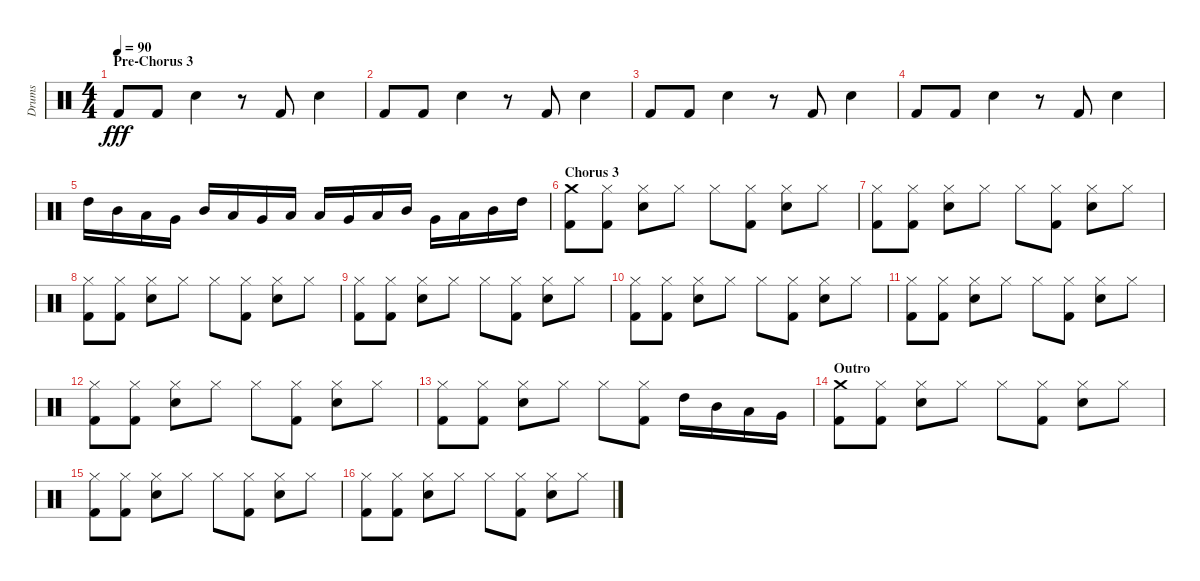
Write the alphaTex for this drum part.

\track ("Drums" "Drums") {instrument percussion}
\staff {score}
\articulation defaults
\ts (4 4)
\section ("" "Pre-Chorus 3")
\tempo 90
\clef neutral
\ks c "Kick (hit) 2".8{dy fff} "Kick (hit) 2".8 "Electric Snare (hit)".4
r.8 "Kick (hit) 2".8 "Electric Snare (hit)".4 |
"Kick (hit) 2".8 "Kick (hit) 2".8 "Electric Snare (hit)".4 r.8 "Kick (hit) 2".8 "Electric Snare (hit)".4 |
"Kick (hit) 2".8 "Kick (hit) 2".8 "Electric Snare (hit)".4 r.8 "Kick (hit) 2".8 "Electric Snare (hit)".4 |
"Kick (hit) 2".8 "Kick (hit) 2".8 "Electric Snare (hit)".4 r.8 "Kick (hit) 2".8 "Electric Snare (hit)".4 |
"High Tom (hit)".16 "Mid Tom (hit)".16 "Low Tom (hit)".16 "Very Low Tom (hit)".16 "Mid Tom (hit)".16 "Low Tom (hit)".16 "Very Low Tom (hit)".16 "Low Floor Tom (hit)".16 "Low Floor Tom (hit)".16 "Very Low Tom (hit)".16 "Low Tom (hit)".16 "Mid Tom (hit)".16 "Very Low Tom (hit)".16 "Low Tom (hit)".16 "Mid Tom (hit)".16 "High Tom (hit)".16 |
\section ("" "Chorus 3")
("Crash medium (hit)" "Kick (hit) 2").8 ("Hi-Hat (closed)" "Kick (hit) 2").8 ("Hi-Hat (closed)" "Electric Snare (hit)").8 "Hi-Hat (closed)".8 "Hi-Hat (closed)".8 ("Hi-Hat (closed)" "Kick (hit) 2").8 ("Hi-Hat (closed)" "Electric Snare (hit)").8 "Hi-Hat (closed)".8 |
("Hi-Hat (closed)" "Kick (hit) 2").8 ("Hi-Hat (closed)" "Kick (hit) 2").8 ("Hi-Hat (closed)" "Electric Snare (hit)").8 "Hi-Hat (closed)".8 "Hi-Hat (closed)".8 ("Hi-Hat (closed)" "Kick (hit) 2").8 ("Hi-Hat (closed)" "Electric Snare (hit)").8 "Hi-Hat (closed)".8 |
("Hi-Hat (closed)" "Kick (hit) 2").8 ("Hi-Hat (closed)" "Kick (hit) 2").8 ("Hi-Hat (closed)" "Electric Snare (hit)").8 "Hi-Hat (closed)".8 "Hi-Hat (closed)".8 ("Hi-Hat (closed)" "Kick (hit) 2").8 ("Hi-Hat (closed)" "Electric Snare (hit)").8 "Hi-Hat (closed)".8 |
("Hi-Hat (closed)" "Kick (hit) 2").8 ("Hi-Hat (closed)" "Kick (hit) 2").8 ("Hi-Hat (closed)" "Electric Snare (hit)").8 "Hi-Hat (closed)".8 "Hi-Hat (closed)".8 ("Hi-Hat (closed)" "Kick (hit) 2").8 ("Hi-Hat (closed)" "Electric Snare (hit)").8 "Hi-Hat (closed)".8 |
("Hi-Hat (closed)" "Kick (hit) 2").8 ("Hi-Hat (closed)" "Kick (hit) 2").8 ("Hi-Hat (closed)" "Electric Snare (hit)").8 "Hi-Hat (closed)".8 "Hi-Hat (closed)".8 ("Hi-Hat (closed)" "Kick (hit) 2").8 ("Hi-Hat (closed)" "Electric Snare (hit)").8 "Hi-Hat (closed)".8 |
("Hi-Hat (closed)" "Kick (hit) 2").8 ("Hi-Hat (closed)" "Kick (hit) 2").8 ("Hi-Hat (closed)" "Electric Snare (hit)").8 "Hi-Hat (closed)".8 "Hi-Hat (closed)".8 ("Hi-Hat (closed)" "Kick (hit) 2").8 ("Hi-Hat (closed)" "Electric Snare (hit)").8 "Hi-Hat (closed)".8 |
("Hi-Hat (closed)" "Kick (hit) 2").8 ("Hi-Hat (closed)" "Kick (hit) 2").8 ("Hi-Hat (closed)" "Electric Snare (hit)").8 "Hi-Hat (closed)".8 "Hi-Hat (closed)".8 ("Hi-Hat (closed)" "Kick (hit) 2").8 ("Hi-Hat (closed)" "Electric Snare (hit)").8 "Hi-Hat (closed)".8 |
("Hi-Hat (closed)" "Kick (hit) 2").8 ("Hi-Hat (closed)" "Kick (hit) 2").8 ("Hi-Hat (closed)" "Electric Snare (hit)").8 "Hi-Hat (closed)".8 "Hi-Hat (closed)".8 ("Hi-Hat (closed)" "Kick (hit) 2").8 "High Tom (hit)".16 "Mid Tom (hit)".16 "Low Tom (hit)".16 "Very Low Tom (hit)".16 |
\section ("" "Outro")
("Crash medium (hit)" "Kick (hit) 2").8 ("Hi-Hat (closed)" "Kick (hit) 2").8 ("Hi-Hat (closed)" "Electric Snare (hit)").8 "Hi-Hat (closed)".8 "Hi-Hat (closed)".8 ("Hi-Hat (closed)" "Kick (hit) 2").8 ("Hi-Hat (closed)" "Electric Snare (hit)").8 "Hi-Hat (closed)".8 |
("Hi-Hat (closed)" "Kick (hit) 2").8 ("Hi-Hat (closed)" "Kick (hit) 2").8 ("Hi-Hat (closed)" "Electric Snare (hit)").8 "Hi-Hat (closed)".8 "Hi-Hat (closed)".8 ("Hi-Hat (closed)" "Kick (hit) 2").8 ("Hi-Hat (closed)" "Electric Snare (hit)").8 "Hi-Hat (closed)".8 |
("Hi-Hat (closed)" "Kick (hit) 2").8 ("Hi-Hat (closed)" "Kick (hit) 2").8 ("Hi-Hat (closed)" "Electric Snare (hit)").8 "Hi-Hat (closed)".8 "Hi-Hat (closed)".8 ("Hi-Hat (closed)" "Kick (hit) 2").8 ("Hi-Hat (closed)" "Electric Snare (hit)").8 "Hi-Hat (closed)".8
